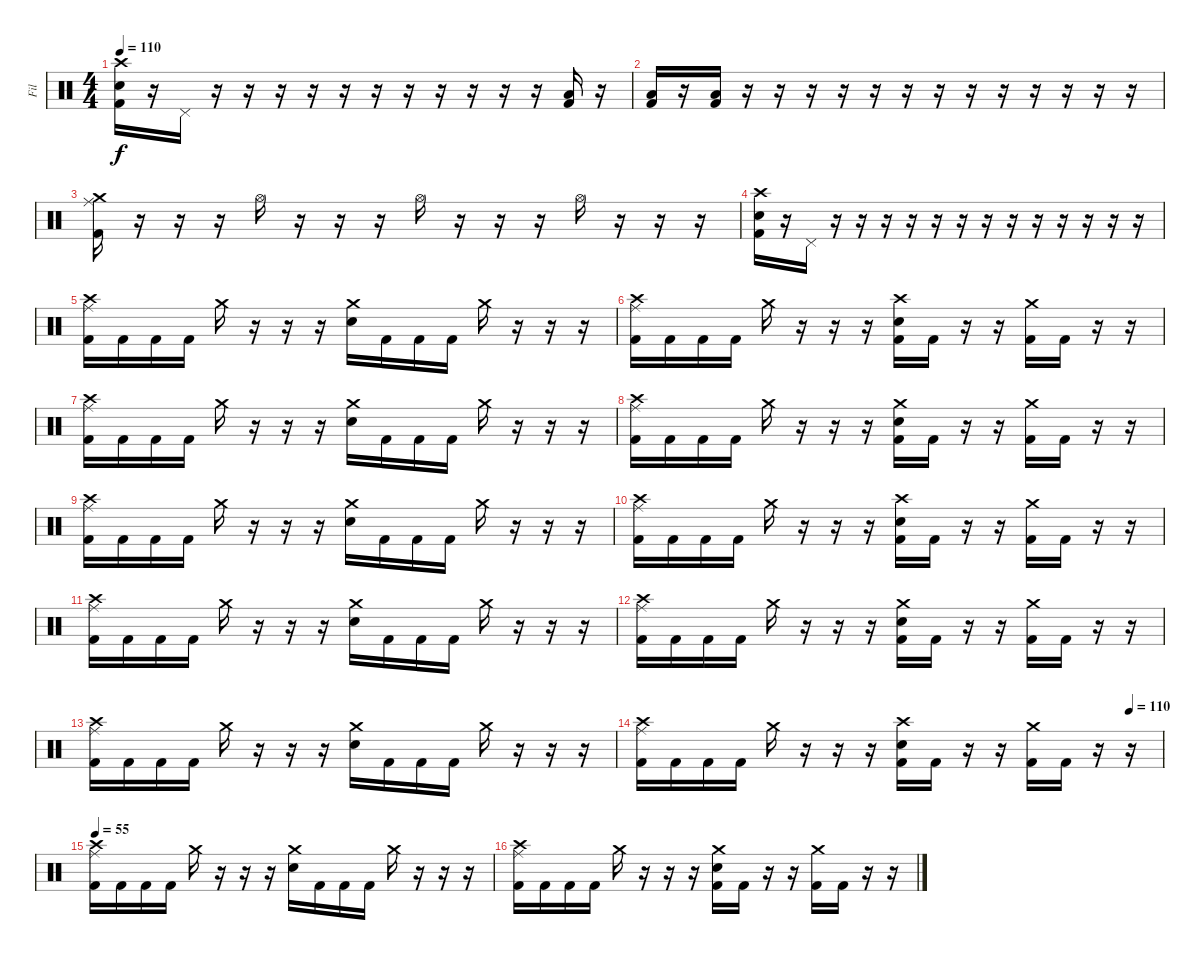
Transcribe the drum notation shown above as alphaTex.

\track ("Fil" "Fil") {instrument percussion}
\staff {score}
\articulation defaults
\ts (4 4)
\tempo 110
\clef neutral
\ks c
("Crash high (hit)" "Electric Snare (hit)" "Kick (hit) 2").16{dy f} r.16 "Pedal Hi-Hat (hit)".16 r.16 r.16 r.16 r.16 r.16 r.16 r.16 r.16 r.16 r.16 r.16 ("Low Tom (hit)" "Kick (hit) 2").16 r.16 |
("Low Tom (hit)" "Kick (hit) 2").16 r.16 ("Low Tom (hit)" "Kick (hit) 2").16 r.16 r.16 r.16 r.16 r.16 r.16 r.16 r.16 r.16 r.16 r.16 r.16 r.16 |
("Crash medium (hit)" "Ride (middle)" "Kick (hit) 2").16 r.16 r.16 r.16 "Hi-Hat (open)".16 r.16 r.16 r.16 "Hi-Hat (open)".16 r.16 r.16 r.16 "Hi-Hat (open)".16 r.16 r.16 r.16 |
("Crash high (hit)" "Electric Snare (hit)" "Kick (hit) 2").16 r.16 "Pedal Hi-Hat (hit)".16 r.16 r.16 r.16 r.16 r.16 r.16 r.16 r.16 r.16 r.16 r.16 r.16 r.16 |
("Crash high (hit)" "Ride (middle)" "Kick (hit) 2").16 "Kick (hit) 2".16 "Kick (hit) 2".16 "Kick (hit) 2".16 "Crash medium (hit)".16 r.16 r.16 r.16 ("Crash medium (hit)" "Electric Snare (hit)").16 "Kick (hit) 2".16 "Kick (hit) 2".16 "Kick (hit) 2".16 "Crash medium (hit)".16 r.16 r.16 r.16 |
("Crash high (hit)" "Ride (middle)" "Kick (hit) 2").16 "Kick (hit) 2".16 "Kick (hit) 2".16 "Kick (hit) 2".16 "Crash medium (hit)".16 r.16 r.16 r.16 ("Crash high (hit)" "Electric Snare (hit)" "Kick (hit) 2").16 "Kick (hit) 2".16 r.16 r.16 ("Crash medium (hit)" "Kick (hit) 2").16 "Kick (hit) 2".16 r.16 r.16 |
("Crash high (hit)" "Ride (middle)" "Kick (hit) 2").16 "Kick (hit) 2".16 "Kick (hit) 2".16 "Kick (hit) 2".16 "Crash medium (hit)".16 r.16 r.16 r.16 ("Crash medium (hit)" "Electric Snare (hit)").16 "Kick (hit) 2".16 "Kick (hit) 2".16 "Kick (hit) 2".16 "Crash medium (hit)".16 r.16 r.16 r.16 |
("Crash high (hit)" "Ride (middle)" "Kick (hit) 2").16 "Kick (hit) 2".16 "Kick (hit) 2".16 "Kick (hit) 2".16 "Crash medium (hit)".16 r.16 r.16 r.16 ("Crash medium (hit)" "Electric Snare (hit)" "Kick (hit) 2").16 "Kick (hit) 2".16 r.16 r.16 ("Crash medium (hit)" "Kick (hit) 2").16 "Kick (hit) 2".16 r.16 r.16 |
("Crash high (hit)" "Ride (middle)" "Kick (hit) 2").16 "Kick (hit) 2".16 "Kick (hit) 2".16 "Kick (hit) 2".16 "Crash medium (hit)".16 r.16 r.16 r.16 ("Crash medium (hit)" "Electric Snare (hit)").16 "Kick (hit) 2".16 "Kick (hit) 2".16 "Kick (hit) 2".16 "Crash medium (hit)".16 r.16 r.16 r.16 |
("Crash high (hit)" "Ride (middle)" "Kick (hit) 2").16 "Kick (hit) 2".16 "Kick (hit) 2".16 "Kick (hit) 2".16 "Crash medium (hit)".16 r.16 r.16 r.16 ("Crash high (hit)" "Electric Snare (hit)" "Kick (hit) 2").16 "Kick (hit) 2".16 r.16 r.16 ("Crash medium (hit)" "Kick (hit) 2").16 "Kick (hit) 2".16 r.16 r.16 |
("Crash high (hit)" "Ride (middle)" "Kick (hit) 2").16 "Kick (hit) 2".16 "Kick (hit) 2".16 "Kick (hit) 2".16 "Crash medium (hit)".16 r.16 r.16 r.16 ("Crash medium (hit)" "Electric Snare (hit)").16 "Kick (hit) 2".16 "Kick (hit) 2".16 "Kick (hit) 2".16 "Crash medium (hit)".16 r.16 r.16 r.16 |
("Crash high (hit)" "Ride (middle)" "Kick (hit) 2").16 "Kick (hit) 2".16 "Kick (hit) 2".16 "Kick (hit) 2".16 "Crash medium (hit)".16 r.16 r.16 r.16 ("Crash medium (hit)" "Electric Snare (hit)" "Kick (hit) 2").16 "Kick (hit) 2".16 r.16 r.16 ("Crash medium (hit)" "Kick (hit) 2").16 "Kick (hit) 2".16 r.16 r.16 |
("Crash high (hit)" "Ride (middle)" "Kick (hit) 2").16 "Kick (hit) 2".16 "Kick (hit) 2".16 "Kick (hit) 2".16 "Crash medium (hit)".16 r.16 r.16 r.16 ("Crash medium (hit)" "Electric Snare (hit)").16 "Kick (hit) 2".16 "Kick (hit) 2".16 "Kick (hit) 2".16 "Crash medium (hit)".16 r.16 r.16 r.16 |
\tempo (110 0.9375)
("Crash high (hit)" "Ride (middle)" "Kick (hit) 2").16 "Kick (hit) 2".16 "Kick (hit) 2".16 "Kick (hit) 2".16 "Crash medium (hit)".16 r.16 r.16 r.16 ("Crash high (hit)" "Electric Snare (hit)" "Kick (hit) 2").16 "Kick (hit) 2".16 r.16 r.16 ("Crash medium (hit)" "Kick (hit) 2").16 "Kick (hit) 2".16 r.16 r.16 |
\tempo 55
("Crash high (hit)" "Ride (middle)" "Kick (hit) 2").16 "Kick (hit) 2".16 "Kick (hit) 2".16 "Kick (hit) 2".16 "Crash medium (hit)".16 r.16 r.16 r.16 ("Crash medium (hit)" "Electric Snare (hit)").16 "Kick (hit) 2".16 "Kick (hit) 2".16 "Kick (hit) 2".16 "Crash medium (hit)".16 r.16 r.16 r.16 |
("Crash high (hit)" "Ride (middle)" "Kick (hit) 2").16 "Kick (hit) 2".16 "Kick (hit) 2".16 "Kick (hit) 2".16 "Crash medium (hit)".16 r.16 r.16 r.16 ("Crash medium (hit)" "Electric Snare (hit)" "Kick (hit) 2").16 "Kick (hit) 2".16 r.16 r.16 ("Crash medium (hit)" "Kick (hit) 2").16 "Kick (hit) 2".16 r.16 r.16
